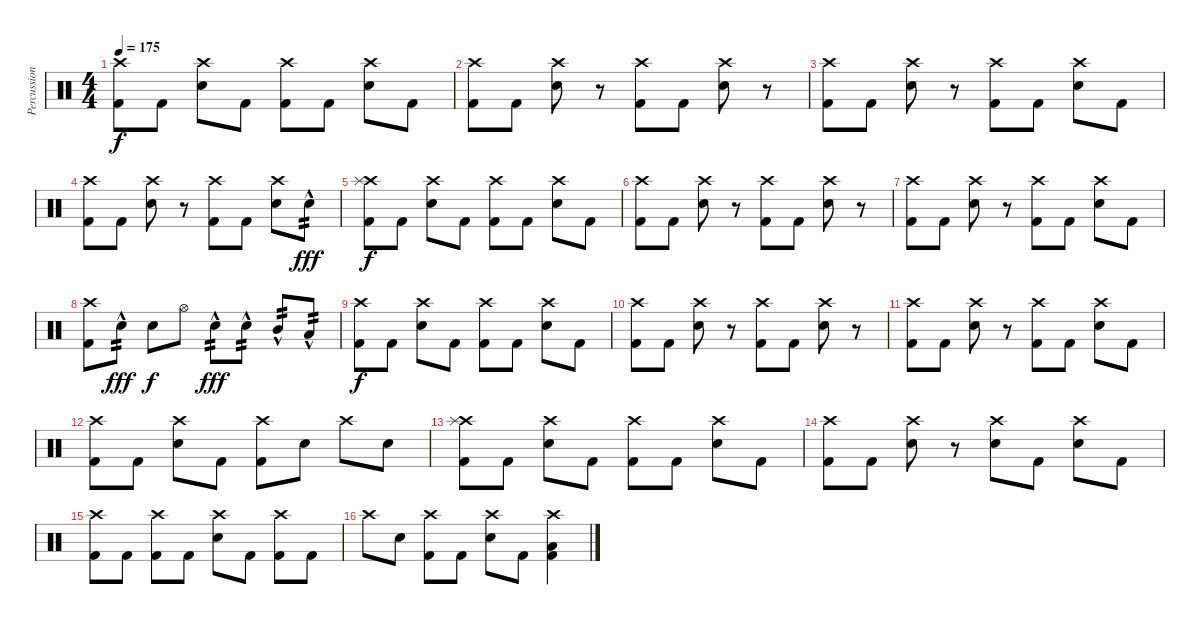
\track ("Percussion" "Percussion") {instrument percussion bank 177}
\staff {score}
\articulation defaults
\ts (4 4)
\tempo 175
\clef neutral
\ks c
("Crash high (hit)" "Kick (hit) 2").8{dy f} "Kick (hit) 2".8 ("Crash high (hit)" "Electric Snare (hit)").8 "Kick (hit) 2".8 ("Crash high (hit)" "Kick (hit) 2").8 "Kick (hit) 2".8 ("Crash high (hit)" "Electric Snare (hit)").8 "Kick (hit) 2".8 |
("Crash high (hit)" "Kick (hit) 2").8 "Kick (hit) 2".8 ("Crash high (hit)" "Electric Snare (hit)").8 r.8 ("Crash high (hit)" "Kick (hit) 2").8 "Kick (hit) 2".8 ("Crash high (hit)" "Electric Snare (hit)").8 r.8 |
("Crash high (hit)" "Kick (hit) 2").8 "Kick (hit) 2".8 ("Crash high (hit)" "Electric Snare (hit)").8 r.8 ("Crash high (hit)" "Kick (hit) 2").8 "Kick (hit) 2".8 ("Crash high (hit)" "Electric Snare (hit)").8 "Kick (hit) 2".8 |
("Crash high (hit)" "Kick (hit) 2").8 "Kick (hit) 2".8 ("Crash high (hit)" "Electric Snare (hit)").8 r.8 ("Crash high (hit)" "Kick (hit) 2").8 "Kick (hit) 2".8 ("Crash high (hit)" "Electric Snare (hit)").8 "Electric Snare (hit)"{hac}.8{tp 2 dy fff} |
("Crash high (hit)" "Splash (hit)" "Kick (hit) 2").8{dy f} "Kick (hit) 2".8 ("Crash high (hit)" "Electric Snare (hit)").8 "Kick (hit) 2".8 ("Crash high (hit)" "Kick (hit) 2").8 "Kick (hit) 2".8 ("Crash high (hit)" "Electric Snare (hit)").8 "Kick (hit) 2".8 |
("Crash high (hit)" "Kick (hit) 2").8 "Kick (hit) 2".8 ("Crash high (hit)" "Electric Snare (hit)").8 r.8 ("Crash high (hit)" "Kick (hit) 2").8 "Kick (hit) 2".8 ("Crash high (hit)" "Electric Snare (hit)").8 r.8 |
("Crash high (hit)" "Kick (hit) 2").8 "Kick (hit) 2".8 ("Crash high (hit)" "Electric Snare (hit)").8 r.8 ("Crash high (hit)" "Kick (hit) 2").8 "Kick (hit) 2".8 ("Crash high (hit)" "Electric Snare (hit)").8 "Kick (hit) 2".8 |
("Crash high (hit)" "Kick (hit) 2").8 "Electric Snare (hit)"{hac}.8{tp 2 dy fff} "Electric Snare (hit)".8{dy f} "Hi-Hat (open)".8 "Electric Snare (hit)"{hac}.8{tp 2 dy fff} "Electric Snare (hit)"{hac}.8{tp 2} "Mid Tom (hit)"{hac}.8{tp 2} "Low Tom (hit)"{hac}.8{tp 2} |
("Crash high (hit)" "Kick (hit) 2").8{dy f} "Kick (hit) 2".8 ("Crash high (hit)" "Electric Snare (hit)").8 "Kick (hit) 2".8 ("Crash high (hit)" "Kick (hit) 2").8 "Kick (hit) 2".8 ("Crash high (hit)" "Electric Snare (hit)").8 "Kick (hit) 2".8 |
("Crash high (hit)" "Kick (hit) 2").8 "Kick (hit) 2".8 ("Crash high (hit)" "Electric Snare (hit)").8 r.8 ("Crash high (hit)" "Kick (hit) 2").8 "Kick (hit) 2".8 ("Crash high (hit)" "Electric Snare (hit)").8 r.8 |
("Crash high (hit)" "Kick (hit) 2").8 "Kick (hit) 2".8 ("Crash high (hit)" "Electric Snare (hit)").8 r.8 ("Crash high (hit)" "Kick (hit) 2").8 "Kick (hit) 2".8 ("Crash high (hit)" "Electric Snare (hit)").8 "Kick (hit) 2".8 |
("Crash high (hit)" "Kick (hit) 2").8 "Kick (hit) 2".8 ("Crash high (hit)" "Electric Snare (hit)").8 "Kick (hit) 2".8 ("Crash high (hit)" "Kick (hit) 2").8 "Electric Snare (hit)".8 "Crash high (hit)".8 "Electric Snare (hit)".8 |
("Crash high (hit)" "Splash (hit)" "Kick (hit) 2").8 "Kick (hit) 2".8 ("Crash high (hit)" "Electric Snare (hit)").8 "Kick (hit) 2".8 ("Crash high (hit)" "Kick (hit) 2").8 "Kick (hit) 2".8 ("Crash high (hit)" "Electric Snare (hit)").8 "Kick (hit) 2".8 |
("Crash high (hit)" "Kick (hit) 2").8 "Kick (hit) 2".8 ("Crash high (hit)" "Electric Snare (hit)").8 r.8 ("Crash high (hit)" "Electric Snare (hit)").8 "Kick (hit) 2".8 ("Crash high (hit)" "Electric Snare (hit)").8 "Kick (hit) 2".8 |
("Crash high (hit)" "Kick (hit) 2").8 "Kick (hit) 2".8 ("Crash high (hit)" "Kick (hit) 2").8 "Kick (hit) 2".8 ("Crash high (hit)" "Electric Snare (hit)").8 "Kick (hit) 2".8 ("Crash high (hit)" "Kick (hit) 2").8 "Kick (hit) 2".8 |
"Crash high (hit)".8 "Electric Snare (hit)".8 ("Crash high (hit)" "Kick (hit) 2").8 "Kick (hit) 2".8 ("Crash high (hit)" "Electric Snare (hit)").8 "Kick (hit) 2".8 ("Crash high (hit)" "Low Tom (hit)" "Kick (hit) 2").4
